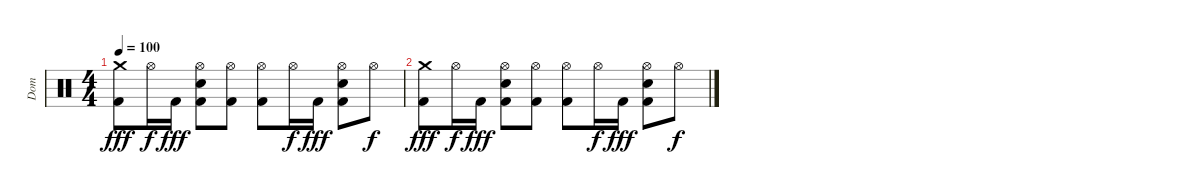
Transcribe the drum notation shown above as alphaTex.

\track ("Dom" "Dom") {instrument percussion}
\staff {score}
\articulation defaults
\ts (4 4)
\tempo 100
\clef neutral
\ks c
("Crash medium (hit)" "Kick (hit) 2").8{dy fff volume 0} "Hi-Hat (open)".16{dy f} "Kick (hit) 2".16{dy fff} ("Hi-Hat (open)" "Snare (hit) 2" "Kick (hit) 2").8 ("Hi-Hat (open)" "Kick (hit) 2").8 ("Hi-Hat (open)" "Kick (hit) 2").8 "Hi-Hat (open)".16{dy f} "Kick (hit) 2".16{dy fff} ("Hi-Hat (open)" "Snare (hit) 2" "Kick (hit) 2").8 "Hi-Hat (open)".8{dy f} |
("Crash medium (hit)" "Kick (hit) 2").8{dy fff} "Hi-Hat (open)".16{dy f} "Kick (hit) 2".16{dy fff} ("Hi-Hat (open)" "Snare (hit) 2" "Kick (hit) 2").8 ("Hi-Hat (open)" "Kick (hit) 2").8 ("Hi-Hat (open)" "Kick (hit) 2").8 "Hi-Hat (open)".16{dy f} "Kick (hit) 2".16{dy fff} ("Hi-Hat (open)" "Snare (hit) 2" "Kick (hit) 2").8 "Hi-Hat (open)".8{dy f}
